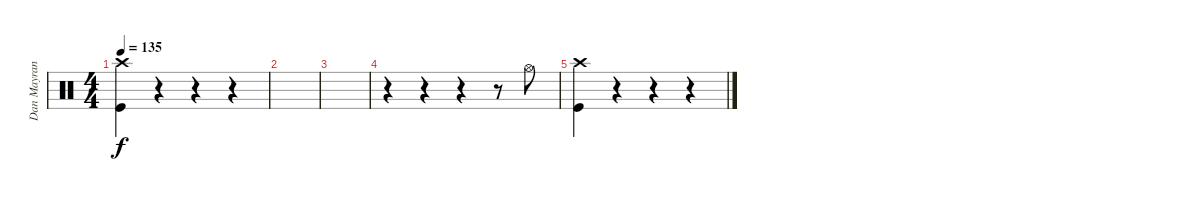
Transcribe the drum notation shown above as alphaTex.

\track ("Dan Mayrand - Drum" "Dan Mayran") {instrument percussion}
\staff {score}
\articulation defaults
\ts (4 4)
\tempo 135
\clef neutral
\ks c
("Crash high (hit)" "Kick (hit)").4{dy f} r.4 r.4 r.4 |
|
|
r.4 r.4 r.4 r.8 "Hi-Hat (open)".8 |
("Crash high (hit)" "Kick (hit)").4 r.4 r.4 r.4
